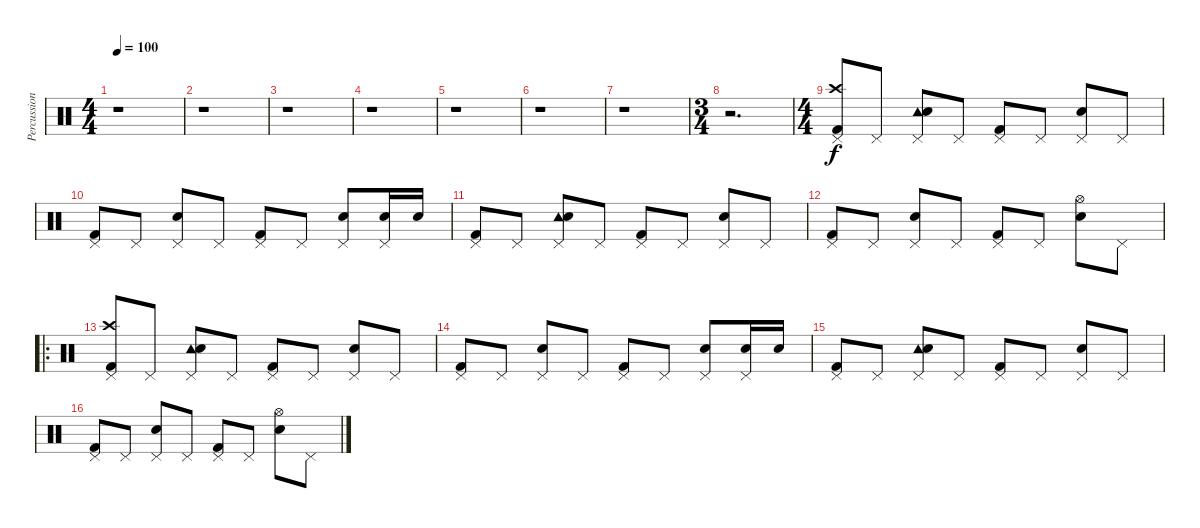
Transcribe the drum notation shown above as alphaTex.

\track ("Percussion" "Percussion") {instrument percussion}
\staff {score}
\articulation defaults
\ts (4 4)
\tempo 100
\clef neutral
\ks c
r.1{dy f} |
r.1 |
r.1 |
r.1 |
r.1 |
r.1 |
r.1 |
\ts (3 4)
r.2{d} |
\ts (4 4)
("Pedal Hi-Hat (hit)" "Crash high (hit)" "Kick (hit) 2").8 "Pedal Hi-Hat (hit)".8 ("Pedal Hi-Hat (hit)" "Tambourine (hit)" "Snare (hit) 2").8 "Pedal Hi-Hat (hit)".8 ("Pedal Hi-Hat (hit)" "Kick (hit) 2").8 "Pedal Hi-Hat (hit)".8 ("Pedal Hi-Hat (hit)" "Snare (hit) 2").8 "Pedal Hi-Hat (hit)".8 |
("Pedal Hi-Hat (hit)" "Kick (hit) 2").8 "Pedal Hi-Hat (hit)".8 ("Pedal Hi-Hat (hit)" "Snare (hit) 2").8 "Pedal Hi-Hat (hit)".8 ("Pedal Hi-Hat (hit)" "Kick (hit) 2").8 "Pedal Hi-Hat (hit)".8 ("Pedal Hi-Hat (hit)" "Snare (hit) 2").8 ("Pedal Hi-Hat (hit)" "Snare (hit) 2").16 "Snare (hit) 2".16 |
("Pedal Hi-Hat (hit)" "Kick (hit) 2").8 "Pedal Hi-Hat (hit)".8 ("Pedal Hi-Hat (hit)" "Tambourine (hit)" "Snare (hit) 2").8 "Pedal Hi-Hat (hit)".8 ("Pedal Hi-Hat (hit)" "Kick (hit) 2").8 "Pedal Hi-Hat (hit)".8 ("Pedal Hi-Hat (hit)" "Snare (hit) 2").8 "Pedal Hi-Hat (hit)".8 |
("Pedal Hi-Hat (hit)" "Kick (hit) 2").8 "Pedal Hi-Hat (hit)".8 ("Pedal Hi-Hat (hit)" "Snare (hit) 2").8 "Pedal Hi-Hat (hit)".8 ("Pedal Hi-Hat (hit)" "Kick (hit) 2").8 "Pedal Hi-Hat (hit)".8 ("Hi-Hat (open)" "Snare (hit) 2").8 "Pedal Hi-Hat (hit)".8 |
\ro
("Pedal Hi-Hat (hit)" "Crash high (hit)" "Kick (hit) 2").8 "Pedal Hi-Hat (hit)".8 ("Pedal Hi-Hat (hit)" "Tambourine (hit)" "Snare (hit) 2").8 "Pedal Hi-Hat (hit)".8 ("Pedal Hi-Hat (hit)" "Kick (hit) 2").8 "Pedal Hi-Hat (hit)".8 ("Pedal Hi-Hat (hit)" "Snare (hit) 2").8 "Pedal Hi-Hat (hit)".8 |
("Pedal Hi-Hat (hit)" "Kick (hit) 2").8 "Pedal Hi-Hat (hit)".8 ("Pedal Hi-Hat (hit)" "Snare (hit) 2").8 "Pedal Hi-Hat (hit)".8 ("Pedal Hi-Hat (hit)" "Kick (hit) 2").8 "Pedal Hi-Hat (hit)".8 ("Pedal Hi-Hat (hit)" "Snare (hit) 2").8 ("Pedal Hi-Hat (hit)" "Snare (hit) 2").16 "Snare (hit) 2".16 |
("Pedal Hi-Hat (hit)" "Kick (hit) 2").8 "Pedal Hi-Hat (hit)".8 ("Pedal Hi-Hat (hit)" "Tambourine (hit)" "Snare (hit) 2").8 "Pedal Hi-Hat (hit)".8 ("Pedal Hi-Hat (hit)" "Kick (hit) 2").8 "Pedal Hi-Hat (hit)".8 ("Pedal Hi-Hat (hit)" "Snare (hit) 2").8 "Pedal Hi-Hat (hit)".8 |
("Pedal Hi-Hat (hit)" "Kick (hit) 2").8 "Pedal Hi-Hat (hit)".8 ("Pedal Hi-Hat (hit)" "Snare (hit) 2").8 "Pedal Hi-Hat (hit)".8 ("Pedal Hi-Hat (hit)" "Kick (hit) 2").8 "Pedal Hi-Hat (hit)".8 ("Hi-Hat (open)" "Snare (hit) 2").8 "Pedal Hi-Hat (hit)".8
